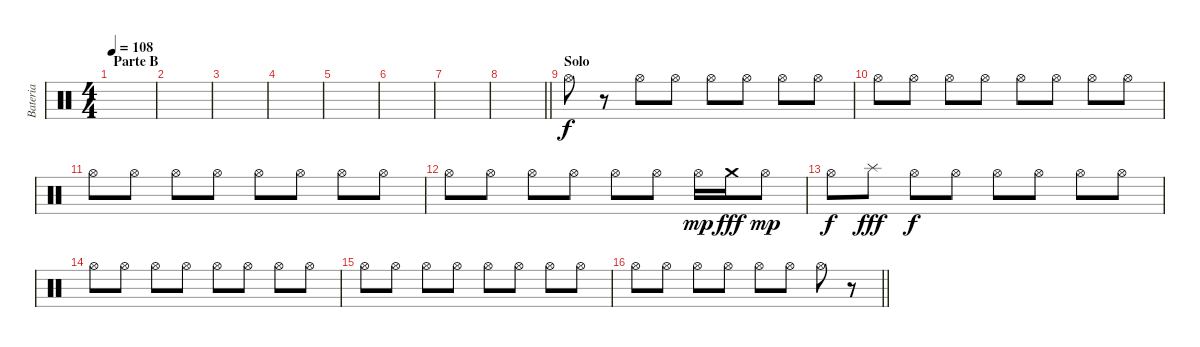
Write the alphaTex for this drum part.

\track ("Bateria" "Bateria") {instrument percussion}
\staff {score}
\articulation defaults
\ts (4 4)
\section ("" "Parte B")
\tempo 108
\clef neutral
\ks c
|
|
|
|
|
|
|
\barLineRight lightlight
|
\section ("" "Solo")
"Hi-Hat (open)".8 r.8 "Hi-Hat (open)".8 "Hi-Hat (open)".8 "Hi-Hat (open)".8 "Hi-Hat (open)".8 "Hi-Hat (open)".8 "Hi-Hat (open)".8 |
"Hi-Hat (open)".8 "Hi-Hat (open)".8 "Hi-Hat (open)".8 "Hi-Hat (open)".8 "Hi-Hat (open)".8 "Hi-Hat (open)".8 "Hi-Hat (open)".8 "Hi-Hat (open)".8 |
"Hi-Hat (open)".8 "Hi-Hat (open)".8 "Hi-Hat (open)".8 "Hi-Hat (open)".8 "Hi-Hat (open)".8 "Hi-Hat (open)".8 "Hi-Hat (open)".8 "Hi-Hat (open)".8 |
"Hi-Hat (open)".8 "Hi-Hat (open)".8 "Hi-Hat (open)".8 "Hi-Hat (open)".8 "Hi-Hat (open)".8 "Hi-Hat (open)".8 "Hi-Hat (open)".16{dy mp} "Crash medium (hit)".16{dy fff} "Hi-Hat (open)".8{dy mp} |
"Hi-Hat (open)".8{dy f} "Splash (hit)".8{dy fff} "Hi-Hat (open)".8{dy f} "Hi-Hat (open)".8 "Hi-Hat (open)".8 "Hi-Hat (open)".8 "Hi-Hat (open)".8 "Hi-Hat (open)".8 |
"Hi-Hat (open)".8 "Hi-Hat (open)".8 "Hi-Hat (open)".8 "Hi-Hat (open)".8 "Hi-Hat (open)".8 "Hi-Hat (open)".8 "Hi-Hat (open)".8 "Hi-Hat (open)".8 |
"Hi-Hat (open)".8 "Hi-Hat (open)".8 "Hi-Hat (open)".8 "Hi-Hat (open)".8 "Hi-Hat (open)".8 "Hi-Hat (open)".8 "Hi-Hat (open)".8 "Hi-Hat (open)".8 |
\barLineRight lightlight "Hi-Hat (open)".8 "Hi-Hat (open)".8 "Hi-Hat (open)".8 "Hi-Hat (open)".8 "Hi-Hat (open)".8 "Hi-Hat (open)".8 "Hi-Hat (open)".8
r.8
